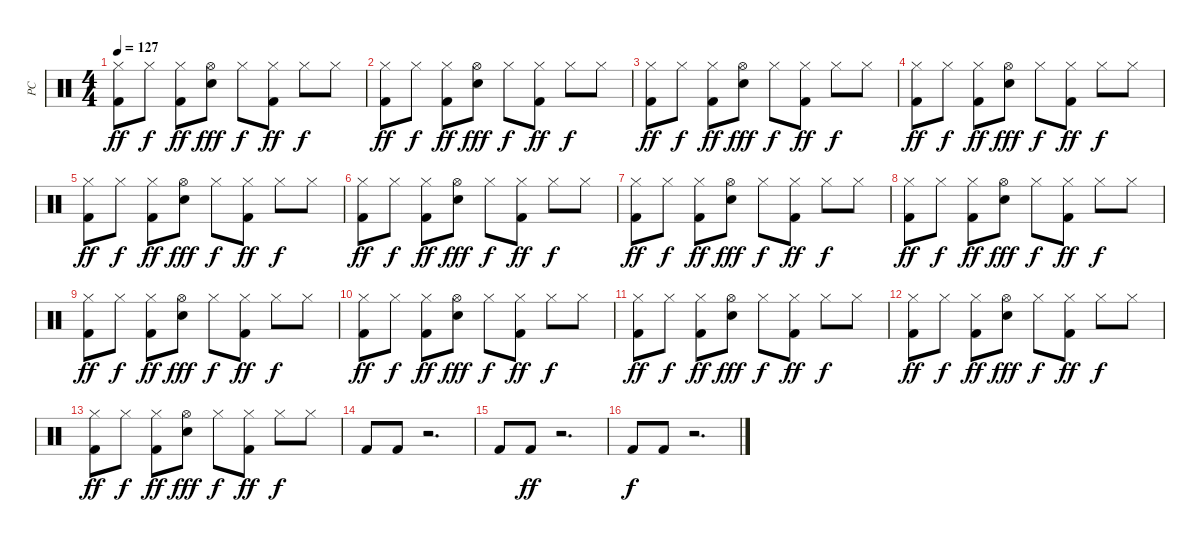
\track ("PC" "PC") {instrument percussion}
\staff {score}
\articulation defaults
\ts (4 4)
\tempo 127
\clef neutral
\ks c
("Hi-Hat (closed)" "Kick (hit) 2").8{dy ff} "Hi-Hat (closed)".8{dy f} ("Hi-Hat (closed)" "Kick (hit) 2").8{dy ff} ("Hi-Hat (open)" "Snare (hit) 2").8{dy fff} "Hi-Hat (closed)".8{dy f} ("Hi-Hat (closed)" "Kick (hit) 2").8{dy ff} "Hi-Hat (closed)".8{dy f} "Hi-Hat (closed)".8 |
("Hi-Hat (closed)" "Kick (hit) 2").8{dy ff} "Hi-Hat (closed)".8{dy f} ("Hi-Hat (closed)" "Kick (hit) 2").8{dy ff} ("Hi-Hat (open)" "Snare (hit) 2").8{dy fff} "Hi-Hat (closed)".8{dy f} ("Hi-Hat (closed)" "Kick (hit) 2").8{dy ff} "Hi-Hat (closed)".8{dy f} "Hi-Hat (closed)".8 |
("Hi-Hat (closed)" "Kick (hit) 2").8{dy ff} "Hi-Hat (closed)".8{dy f} ("Hi-Hat (closed)" "Kick (hit) 2").8{dy ff} ("Hi-Hat (open)" "Snare (hit) 2").8{dy fff} "Hi-Hat (closed)".8{dy f} ("Hi-Hat (closed)" "Kick (hit) 2").8{dy ff} "Hi-Hat (closed)".8{dy f} "Hi-Hat (closed)".8 |
("Hi-Hat (closed)" "Kick (hit) 2").8{dy ff} "Hi-Hat (closed)".8{dy f} ("Hi-Hat (closed)" "Kick (hit) 2").8{dy ff} ("Hi-Hat (open)" "Snare (hit) 2").8{dy fff} "Hi-Hat (closed)".8{dy f} ("Hi-Hat (closed)" "Kick (hit) 2").8{dy ff} "Hi-Hat (closed)".8{dy f} "Hi-Hat (closed)".8 |
("Hi-Hat (closed)" "Kick (hit) 2").8{dy ff} "Hi-Hat (closed)".8{dy f} ("Hi-Hat (closed)" "Kick (hit) 2").8{dy ff} ("Hi-Hat (open)" "Snare (hit) 2").8{dy fff} "Hi-Hat (closed)".8{dy f} ("Hi-Hat (closed)" "Kick (hit) 2").8{dy ff} "Hi-Hat (closed)".8{dy f} "Hi-Hat (closed)".8 |
("Hi-Hat (closed)" "Kick (hit) 2").8{dy ff} "Hi-Hat (closed)".8{dy f} ("Hi-Hat (closed)" "Kick (hit) 2").8{dy ff} ("Hi-Hat (open)" "Snare (hit) 2").8{dy fff} "Hi-Hat (closed)".8{dy f} ("Hi-Hat (closed)" "Kick (hit) 2").8{dy ff} "Hi-Hat (closed)".8{dy f} "Hi-Hat (closed)".8 |
("Hi-Hat (closed)" "Kick (hit) 2").8{dy ff} "Hi-Hat (closed)".8{dy f} ("Hi-Hat (closed)" "Kick (hit) 2").8{dy ff} ("Hi-Hat (open)" "Snare (hit) 2").8{dy fff} "Hi-Hat (closed)".8{dy f} ("Hi-Hat (closed)" "Kick (hit) 2").8{dy ff} "Hi-Hat (closed)".8{dy f} "Hi-Hat (closed)".8 |
("Hi-Hat (closed)" "Kick (hit) 2").8{dy ff} "Hi-Hat (closed)".8{dy f} ("Hi-Hat (closed)" "Kick (hit) 2").8{dy ff} ("Hi-Hat (open)" "Snare (hit) 2").8{dy fff} "Hi-Hat (closed)".8{dy f} ("Hi-Hat (closed)" "Kick (hit) 2").8{dy ff} "Hi-Hat (closed)".8{dy f} "Hi-Hat (closed)".8 |
("Hi-Hat (closed)" "Kick (hit) 2").8{dy ff} "Hi-Hat (closed)".8{dy f} ("Hi-Hat (closed)" "Kick (hit) 2").8{dy ff} ("Hi-Hat (open)" "Snare (hit) 2").8{dy fff} "Hi-Hat (closed)".8{dy f} ("Hi-Hat (closed)" "Kick (hit) 2").8{dy ff} "Hi-Hat (closed)".8{dy f} "Hi-Hat (closed)".8 |
("Hi-Hat (closed)" "Kick (hit) 2").8{dy ff} "Hi-Hat (closed)".8{dy f} ("Hi-Hat (closed)" "Kick (hit) 2").8{dy ff} ("Hi-Hat (open)" "Snare (hit) 2").8{dy fff} "Hi-Hat (closed)".8{dy f} ("Hi-Hat (closed)" "Kick (hit) 2").8{dy ff} "Hi-Hat (closed)".8{dy f} "Hi-Hat (closed)".8 |
("Hi-Hat (closed)" "Kick (hit) 2").8{dy ff} "Hi-Hat (closed)".8{dy f} ("Hi-Hat (closed)" "Kick (hit) 2").8{dy ff} ("Hi-Hat (open)" "Snare (hit) 2").8{dy fff} "Hi-Hat (closed)".8{dy f} ("Hi-Hat (closed)" "Kick (hit) 2").8{dy ff} "Hi-Hat (closed)".8{dy f} "Hi-Hat (closed)".8 |
("Hi-Hat (closed)" "Kick (hit) 2").8{dy ff} "Hi-Hat (closed)".8{dy f} ("Hi-Hat (closed)" "Kick (hit) 2").8{dy ff} ("Hi-Hat (open)" "Snare (hit) 2").8{dy fff} "Hi-Hat (closed)".8{dy f} ("Hi-Hat (closed)" "Kick (hit) 2").8{dy ff} "Hi-Hat (closed)".8{dy f} "Hi-Hat (closed)".8 |
("Hi-Hat (closed)" "Kick (hit) 2").8{dy ff} "Hi-Hat (closed)".8{dy f} ("Hi-Hat (closed)" "Kick (hit) 2").8{dy ff} ("Hi-Hat (open)" "Snare (hit) 2").8{dy fff} "Hi-Hat (closed)".8{dy f} ("Hi-Hat (closed)" "Kick (hit) 2").8{dy ff} "Hi-Hat (closed)".8{dy f} "Hi-Hat (closed)".8 |
"Kick (hit) 2".8 "Kick (hit) 2".8 r.2{d} |
"Kick (hit) 2".8 "Kick (hit) 2".8{dy ff} r.2{d} |
"Kick (hit) 2".8{dy f} "Kick (hit) 2".8 r.2{d}
